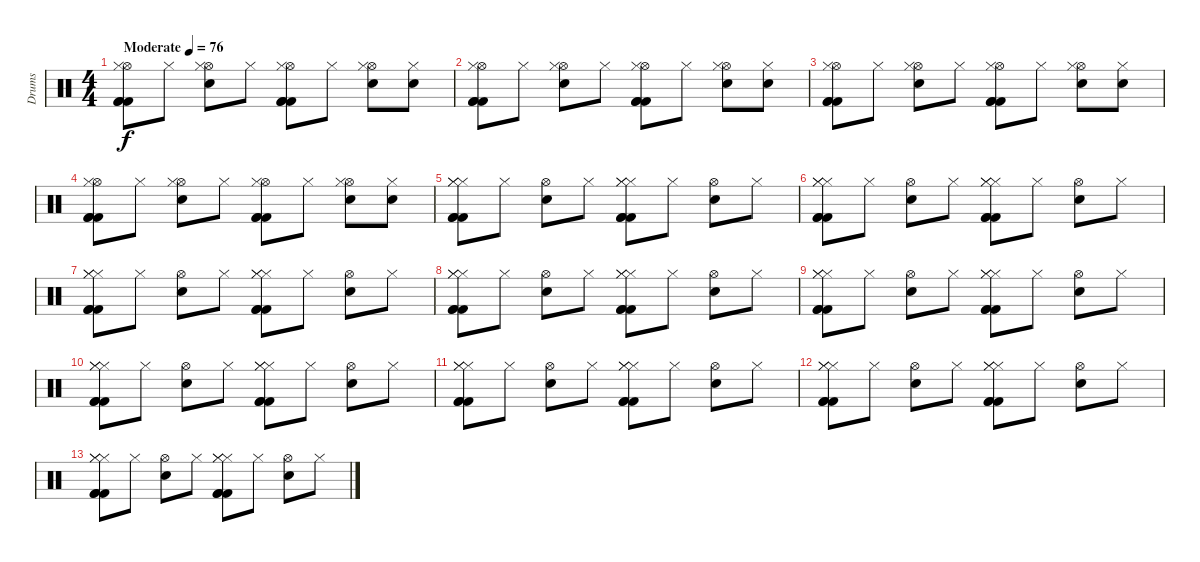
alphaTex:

\track ("Drums" "Drums") {instrument percussion}
\staff {score}
\articulation defaults
\ts (4 4)
\tempo (76 "Moderate")
\clef neutral
\ks c
("Hi-Hat (open)" "Hi-Hat (closed)" "Kick (hit) 2" "Kick (hit) 2" "Kick (hit) 2").8{dy f} "Hi-Hat (closed)".8 ("Hi-Hat (open)" "Hi-Hat (closed)" "Snare (hit) 2").8 "Hi-Hat (closed)".8 ("Hi-Hat (open)" "Hi-Hat (closed)" "Kick (hit) 2" "Kick (hit) 2" "Kick (hit) 2").8 "Hi-Hat (closed)".8 ("Hi-Hat (open)" "Hi-Hat (closed)" "Snare (hit) 2").8 ("Hi-Hat (closed)" "Snare (hit) 2").8 |
("Hi-Hat (open)" "Hi-Hat (closed)" "Kick (hit) 2" "Kick (hit) 2" "Kick (hit) 2").8 "Hi-Hat (closed)".8 ("Hi-Hat (open)" "Hi-Hat (closed)" "Snare (hit) 2").8 "Hi-Hat (closed)".8 ("Hi-Hat (open)" "Hi-Hat (closed)" "Kick (hit) 2" "Kick (hit) 2" "Kick (hit) 2").8 "Hi-Hat (closed)".8 ("Hi-Hat (open)" "Hi-Hat (closed)" "Snare (hit) 2").8 ("Hi-Hat (closed)" "Snare (hit) 2").8 |
("Hi-Hat (open)" "Hi-Hat (closed)" "Kick (hit) 2" "Kick (hit) 2" "Kick (hit) 2").8 "Hi-Hat (closed)".8 ("Hi-Hat (open)" "Hi-Hat (closed)" "Snare (hit) 2").8 "Hi-Hat (closed)".8 ("Hi-Hat (open)" "Hi-Hat (closed)" "Kick (hit) 2" "Kick (hit) 2" "Kick (hit) 2").8 "Hi-Hat (closed)".8 ("Hi-Hat (open)" "Hi-Hat (closed)" "Snare (hit) 2").8 ("Hi-Hat (closed)" "Snare (hit) 2").8 |
("Hi-Hat (open)" "Hi-Hat (closed)" "Kick (hit) 2" "Kick (hit) 2" "Kick (hit) 2").8 "Hi-Hat (closed)".8 ("Hi-Hat (open)" "Hi-Hat (closed)" "Snare (hit) 2").8 "Hi-Hat (closed)".8 ("Hi-Hat (open)" "Hi-Hat (closed)" "Kick (hit) 2" "Kick (hit) 2" "Kick (hit) 2").8 "Hi-Hat (closed)".8 ("Hi-Hat (open)" "Hi-Hat (closed)" "Snare (hit) 2").8 ("Hi-Hat (closed)" "Snare (hit) 2").8 |
("Hi-Hat (closed)" "Hi-Hat (closed)" "Hi-Hat (closed)" "Kick (hit) 2" "Kick (hit) 2" "Kick (hit) 2").8 "Hi-Hat (closed)".8 ("Hi-Hat (open)" "Snare (hit) 2").8 "Hi-Hat (closed)".8 ("Hi-Hat (closed)" "Hi-Hat (closed)" "Hi-Hat (closed)" "Kick (hit) 2" "Kick (hit) 2" "Kick (hit) 2").8 "Hi-Hat (closed)".8 ("Hi-Hat (open)" "Snare (hit) 2").8 "Hi-Hat (closed)".8 |
("Hi-Hat (closed)" "Hi-Hat (closed)" "Hi-Hat (closed)" "Kick (hit) 2" "Kick (hit) 2" "Kick (hit) 2").8 "Hi-Hat (closed)".8 ("Hi-Hat (open)" "Snare (hit) 2").8 "Hi-Hat (closed)".8 ("Hi-Hat (closed)" "Hi-Hat (closed)" "Hi-Hat (closed)" "Kick (hit) 2" "Kick (hit) 2" "Kick (hit) 2").8 "Hi-Hat (closed)".8 ("Hi-Hat (open)" "Snare (hit) 2").8 "Hi-Hat (closed)".8 |
("Hi-Hat (closed)" "Hi-Hat (closed)" "Hi-Hat (closed)" "Kick (hit) 2" "Kick (hit) 2" "Kick (hit) 2").8 "Hi-Hat (closed)".8 ("Hi-Hat (open)" "Snare (hit) 2").8 "Hi-Hat (closed)".8 ("Hi-Hat (closed)" "Hi-Hat (closed)" "Hi-Hat (closed)" "Kick (hit) 2" "Kick (hit) 2" "Kick (hit) 2").8 "Hi-Hat (closed)".8 ("Hi-Hat (open)" "Snare (hit) 2").8 "Hi-Hat (closed)".8 |
("Hi-Hat (closed)" "Hi-Hat (closed)" "Hi-Hat (closed)" "Kick (hit) 2" "Kick (hit) 2" "Kick (hit) 2").8 "Hi-Hat (closed)".8 ("Hi-Hat (open)" "Snare (hit) 2").8 "Hi-Hat (closed)".8 ("Hi-Hat (closed)" "Hi-Hat (closed)" "Hi-Hat (closed)" "Kick (hit) 2" "Kick (hit) 2" "Kick (hit) 2").8 "Hi-Hat (closed)".8 ("Hi-Hat (open)" "Snare (hit) 2").8 "Hi-Hat (closed)".8 |
("Hi-Hat (closed)" "Hi-Hat (closed)" "Hi-Hat (closed)" "Kick (hit) 2" "Kick (hit) 2" "Kick (hit) 2").8 "Hi-Hat (closed)".8 ("Hi-Hat (open)" "Snare (hit) 2").8 "Hi-Hat (closed)".8 ("Hi-Hat (closed)" "Hi-Hat (closed)" "Hi-Hat (closed)" "Kick (hit) 2" "Kick (hit) 2" "Kick (hit) 2").8 "Hi-Hat (closed)".8 ("Hi-Hat (open)" "Snare (hit) 2").8 "Hi-Hat (closed)".8 |
("Hi-Hat (closed)" "Hi-Hat (closed)" "Hi-Hat (closed)" "Kick (hit) 2" "Kick (hit) 2" "Kick (hit) 2").8 "Hi-Hat (closed)".8 ("Hi-Hat (open)" "Snare (hit) 2").8 "Hi-Hat (closed)".8 ("Hi-Hat (closed)" "Hi-Hat (closed)" "Hi-Hat (closed)" "Kick (hit) 2" "Kick (hit) 2" "Kick (hit) 2").8 "Hi-Hat (closed)".8 ("Hi-Hat (open)" "Snare (hit) 2").8 "Hi-Hat (closed)".8 |
("Hi-Hat (closed)" "Hi-Hat (closed)" "Hi-Hat (closed)" "Kick (hit) 2" "Kick (hit) 2" "Kick (hit) 2").8 "Hi-Hat (closed)".8 ("Hi-Hat (open)" "Snare (hit) 2").8 "Hi-Hat (closed)".8 ("Hi-Hat (closed)" "Hi-Hat (closed)" "Hi-Hat (closed)" "Kick (hit) 2" "Kick (hit) 2" "Kick (hit) 2").8 "Hi-Hat (closed)".8 ("Hi-Hat (open)" "Snare (hit) 2").8 "Hi-Hat (closed)".8 |
("Hi-Hat (closed)" "Hi-Hat (closed)" "Hi-Hat (closed)" "Kick (hit) 2" "Kick (hit) 2" "Kick (hit) 2").8 "Hi-Hat (closed)".8 ("Hi-Hat (open)" "Snare (hit) 2").8 "Hi-Hat (closed)".8 ("Hi-Hat (closed)" "Hi-Hat (closed)" "Hi-Hat (closed)" "Kick (hit) 2" "Kick (hit) 2" "Kick (hit) 2").8 "Hi-Hat (closed)".8 ("Hi-Hat (open)" "Snare (hit) 2").8 "Hi-Hat (closed)".8 |
("Hi-Hat (closed)" "Hi-Hat (closed)" "Hi-Hat (closed)" "Kick (hit) 2" "Kick (hit) 2" "Kick (hit) 2").8 "Hi-Hat (closed)".8 ("Hi-Hat (open)" "Snare (hit) 2").8 "Hi-Hat (closed)".8 ("Hi-Hat (closed)" "Hi-Hat (closed)" "Hi-Hat (closed)" "Kick (hit) 2" "Kick (hit) 2" "Kick (hit) 2").8 "Hi-Hat (closed)".8 ("Hi-Hat (open)" "Snare (hit) 2").8 "Hi-Hat (closed)".8
